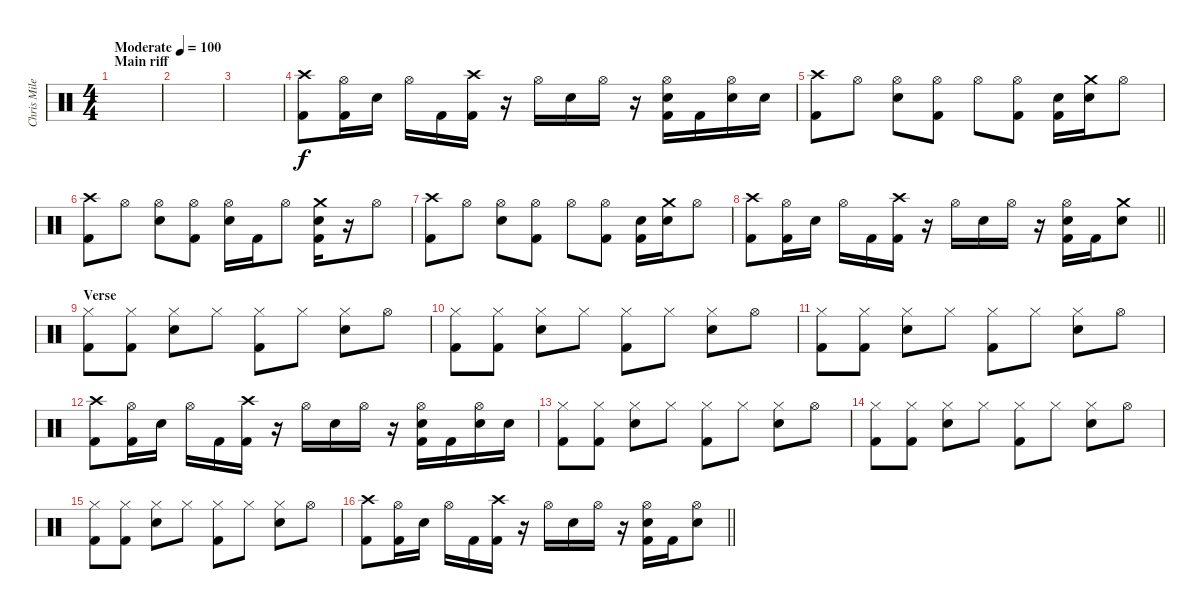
\track ("Chris Mileski" "Chris Mile") {instrument percussion}
\staff {score}
\articulation defaults
\ts (4 4)
\section ("" "Main riff")
\tempo (100 "Moderate")
\clef neutral
\ks c
|
|
|
("Crash high (hit)" "Kick (hit) 2").8 ("Hi-Hat (open)" "Kick (hit) 2").16 "Electric Snare (hit)".16 "Hi-Hat (open)".16 "Kick (hit) 2".16 ("Crash high (hit)" "Kick (hit) 2").16 r.16 "Hi-Hat (open)".16 "Electric Snare (hit)".16 "Hi-Hat (open)".16 r.16 ("Hi-Hat (open)" "Electric Snare (hit)" "Kick (hit) 2").16 "Kick (hit) 2".16 ("Hi-Hat (open)" "Electric Snare (hit)").16 "Electric Snare (hit)".16 |
("Crash high (hit)" "Kick (hit) 2").8 "Hi-Hat (open)".8 ("Hi-Hat (open)" "Electric Snare (hit)").8 ("Hi-Hat (open)" "Kick (hit) 2").8 "Hi-Hat (open)".8 ("Hi-Hat (open)" "Kick (hit) 2").8 ("Electric Snare (hit)" "Kick (hit) 2").16 ("Crash medium (hit)" "Electric Snare (hit)").16 "Hi-Hat (open)".8 |
("Crash high (hit)" "Kick (hit) 2").8 "Hi-Hat (open)".8 ("Hi-Hat (open)" "Electric Snare (hit)").8 ("Hi-Hat (open)" "Kick (hit) 2").8 ("Hi-Hat (open)" "Electric Snare (hit)").16 "Kick (hit) 2".16 "Hi-Hat (open)".8 ("Crash medium (hit)" "Electric Snare (hit)" "Kick (hit) 2").16 r.16 "Hi-Hat (open)".8 |
("Crash high (hit)" "Kick (hit) 2").8 "Hi-Hat (open)".8 ("Hi-Hat (open)" "Electric Snare (hit)").8 ("Hi-Hat (open)" "Kick (hit) 2").8 "Hi-Hat (open)".8 ("Hi-Hat (open)" "Kick (hit) 2").8 ("Electric Snare (hit)" "Kick (hit) 2").16 ("Crash medium (hit)" "Electric Snare (hit)").16 "Hi-Hat (open)".8 |
\barLineRight lightlight
("Crash high (hit)" "Kick (hit) 2").8 ("Hi-Hat (open)" "Kick (hit) 2").16 "Electric Snare (hit)".16 "Hi-Hat (open)".16 "Kick (hit) 2".16 ("Crash high (hit)" "Kick (hit) 2").16 r.16 "Hi-Hat (open)".16 "Electric Snare (hit)".16 "Hi-Hat (open)".16 r.16 ("Hi-Hat (open)" "Electric Snare (hit)" "Kick (hit) 2").16 "Kick (hit) 2".16 ("Crash medium (hit)" "Electric Snare (hit)").8 |
\section ("" "Verse")
("Hi-Hat (closed)" "Kick (hit) 2").8 ("Hi-Hat (closed)" "Kick (hit) 2").8 ("Hi-Hat (closed)" "Electric Snare (hit)").8 "Hi-Hat (closed)".8 ("Hi-Hat (closed)" "Kick (hit) 2").8 "Hi-Hat (closed)".8 ("Hi-Hat (closed)" "Electric Snare (hit)").8 "Hi-Hat (open)".8 |
("Hi-Hat (closed)" "Kick (hit) 2").8 ("Hi-Hat (closed)" "Kick (hit) 2").8 ("Hi-Hat (closed)" "Electric Snare (hit)").8 "Hi-Hat (closed)".8 ("Hi-Hat (closed)" "Kick (hit) 2").8 "Hi-Hat (closed)".8 ("Hi-Hat (closed)" "Electric Snare (hit)").8 "Hi-Hat (open)".8 |
("Hi-Hat (closed)" "Kick (hit) 2").8 ("Hi-Hat (closed)" "Kick (hit) 2").8 ("Hi-Hat (closed)" "Electric Snare (hit)").8 "Hi-Hat (closed)".8 ("Hi-Hat (closed)" "Kick (hit) 2").8 "Hi-Hat (closed)".8 ("Hi-Hat (closed)" "Electric Snare (hit)").8 "Hi-Hat (open)".8 |
("Crash high (hit)" "Kick (hit) 2").8 ("Hi-Hat (open)" "Kick (hit) 2").16 "Electric Snare (hit)".16 "Hi-Hat (open)".16 "Kick (hit) 2".16 ("Crash high (hit)" "Kick (hit) 2").16 r.16 "Hi-Hat (open)".16 "Electric Snare (hit)".16 "Hi-Hat (open)".16 r.16 ("Hi-Hat (open)" "Electric Snare (hit)" "Kick (hit) 2").16 "Kick (hit) 2".16 ("Hi-Hat (open)" "Electric Snare (hit)").16 "Electric Snare (hit)".16 |
("Hi-Hat (closed)" "Kick (hit) 2").8 ("Hi-Hat (closed)" "Kick (hit) 2").8 ("Hi-Hat (closed)" "Electric Snare (hit)").8 "Hi-Hat (closed)".8 ("Hi-Hat (closed)" "Kick (hit) 2").8 "Hi-Hat (closed)".8 ("Hi-Hat (closed)" "Electric Snare (hit)").8 "Hi-Hat (open)".8 |
("Hi-Hat (closed)" "Kick (hit) 2").8 ("Hi-Hat (closed)" "Kick (hit) 2").8 ("Hi-Hat (closed)" "Electric Snare (hit)").8 "Hi-Hat (closed)".8 ("Hi-Hat (closed)" "Kick (hit) 2").8 "Hi-Hat (closed)".8 ("Hi-Hat (closed)" "Electric Snare (hit)").8 "Hi-Hat (open)".8 |
("Hi-Hat (closed)" "Kick (hit) 2").8 ("Hi-Hat (closed)" "Kick (hit) 2").8 ("Hi-Hat (closed)" "Electric Snare (hit)").8 "Hi-Hat (closed)".8 ("Hi-Hat (closed)" "Kick (hit) 2").8 "Hi-Hat (closed)".8 ("Hi-Hat (closed)" "Electric Snare (hit)").8 "Hi-Hat (open)".8 |
\barLineRight lightlight
("Crash high (hit)" "Kick (hit) 2").8 ("Hi-Hat (open)" "Kick (hit) 2").16 "Electric Snare (hit)".16 "Hi-Hat (open)".16 "Kick (hit) 2".16 ("Crash high (hit)" "Kick (hit) 2").16 r.16 "Hi-Hat (open)".16 "Electric Snare (hit)".16 "Hi-Hat (open)".16 r.16 ("Hi-Hat (open)" "Electric Snare (hit)" "Kick (hit) 2").16 "Kick (hit) 2".16 ("Hi-Hat (open)" "Electric Snare (hit)").8
